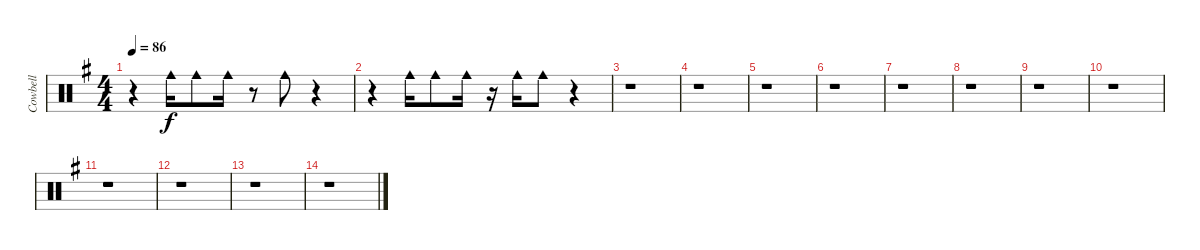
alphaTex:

\track ("Cowbell" "Cowbell") {instrument percussion}
\staff {score}
\articulation defaults
\ts (4 4)
\tempo 86
\clef neutral
\ks g
r.4{dy f} "Cowbell medium (hit)".16 "Cowbell medium (hit)".8 "Cowbell medium (hit)".16 r.8 "Cowbell medium (hit)".8 r.4 |
r.4 "Cowbell medium (hit)".16 "Cowbell medium (hit)".8 "Cowbell medium (hit)".16 r.16 "Cowbell medium (hit)".16 "Cowbell medium (hit)".8 r.4 |
r.1 |
r.1 |
r.1 |
r.1 |
r.1 |
r.1 |
r.1 |
r.1 |
r.1 |
r.1 |
r.1 |
r.1
